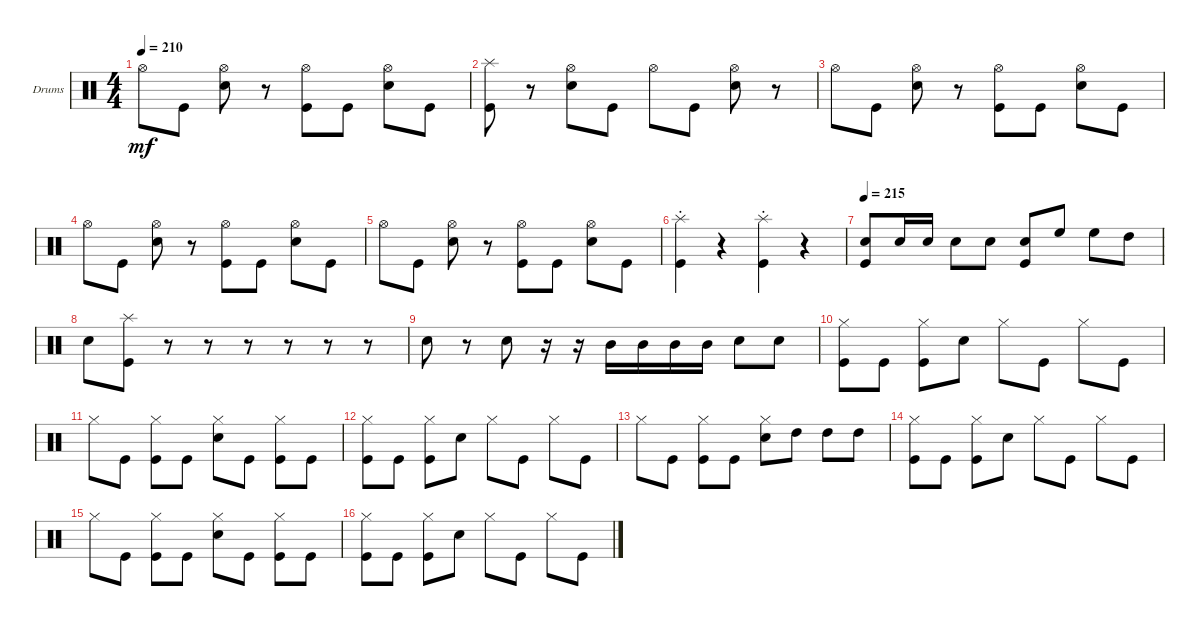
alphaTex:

\bracketExtendMode groupsimilarinstruments
\firstSystemTrackNameOrientation horizontal
\otherSystemsTrackNameOrientation horizontal
\track ("Drumkit" "Drums") {instrument percussion}
\staff {score}
\articulation defaults
\ts (4 4)
\tempo 210
\clef neutral
\ks c "Hi-Hat (open)".8{dy mf} "Kick (hit)".8
("Snare (hit) 2" "Hi-Hat (open)").8 r.8 ("Kick (hit)" "Hi-Hat (open)").8 "Kick (hit)".8 ("Snare (hit) 2" "Hi-Hat (open)").8 "Kick (hit)".8 |
("Kick (hit)" "Splash (hit)").8 r.8 ("Snare (hit) 2" "Hi-Hat (open)").8 "Kick (hit)".8 "Hi-Hat (open)".8 "Kick (hit)".8 ("Snare (hit) 2" "Hi-Hat (open)").8 r.8 |
"Hi-Hat (open)".8 "Kick (hit)".8 ("Snare (hit) 2" "Hi-Hat (open)").8 r.8 ("Kick (hit)" "Hi-Hat (open)").8 "Kick (hit)".8 ("Snare (hit) 2" "Hi-Hat (open)").8 "Kick (hit)".8 |
"Hi-Hat (open)".8 "Kick (hit)".8 ("Snare (hit) 2" "Hi-Hat (open)").8 r.8 ("Kick (hit)" "Hi-Hat (open)").8 "Kick (hit)".8 ("Snare (hit) 2" "Hi-Hat (open)").8 "Kick (hit)".8 |
"Hi-Hat (open)".8 "Kick (hit)".8 ("Snare (hit) 2" "Hi-Hat (open)").8 r.8 ("Kick (hit)" "Hi-Hat (open)").8 "Kick (hit)".8 ("Snare (hit) 2" "Hi-Hat (open)").8 "Kick (hit)".8 |
("Kick (hit)" "Splash (hit)"{st}).4 r.4 ("Kick (hit)" "Splash (hit)"{st}).4 r.4 |
\tempo 215
("Snare (hit) 2" "Kick (hit)").8 "Snare (hit) 2".16 "Snare (hit) 2".16 "Snare (hit) 2".8 "Snare (hit) 2".8 ("Snare (hit) 2" "Kick (hit)").8 "High Floor Tom (hit)".8 "High Floor Tom (hit)".8 "High Tom (hit)".8 |
"Snare (hit) 2".8 ("Kick (hit)" "Splash (hit)").8 r.8 r.8 r.8 r.8 r.8 r.8 |
"Snare (hit) 2".8 r.8 "Snare (hit) 2".8 r.16 r.16 "Mid Tom (hit)".16 "Mid Tom (hit)".16 "Mid Tom (hit)".16 "Mid Tom (hit)".16 "Snare (hit) 2".8 "Snare (hit) 2".8 |
("Kick (hit)" "Hi-Hat (closed)").8 "Kick (hit)".8 ("Kick (hit)" "Hi-Hat (closed)").8 "Snare (hit) 2".8 "Hi-Hat (closed)".8 "Kick (hit)".8 "Hi-Hat (closed)".8 "Kick (hit)".8 |
"Hi-Hat (closed)".8 "Kick (hit)".8 ("Kick (hit)" "Hi-Hat (closed)").8 "Kick (hit)".8 ("Snare (hit) 2" "Hi-Hat (closed)").8 "Kick (hit)".8 ("Kick (hit)" "Hi-Hat (closed)").8 "Kick (hit)".8 |
("Kick (hit)" "Hi-Hat (closed)").8 "Kick (hit)".8 ("Kick (hit)" "Hi-Hat (closed)").8 "Snare (hit) 2".8 "Hi-Hat (closed)".8 "Kick (hit)".8 "Hi-Hat (closed)".8 "Kick (hit)".8 |
"Hi-Hat (closed)".8 "Kick (hit)".8 ("Kick (hit)" "Hi-Hat (closed)").8 "Kick (hit)".8 ("Snare (hit) 2" "Hi-Hat (closed)").8 "High Tom (hit)".8 "High Tom (hit)".8 "High Tom (hit)".8 |
("Kick (hit)" "Hi-Hat (closed)").8 "Kick (hit)".8 ("Kick (hit)" "Hi-Hat (closed)").8 "Snare (hit) 2".8 "Hi-Hat (closed)".8 "Kick (hit)".8 "Hi-Hat (closed)".8 "Kick (hit)".8 |
"Hi-Hat (closed)".8 "Kick (hit)".8 ("Kick (hit)" "Hi-Hat (closed)").8 "Kick (hit)".8 ("Snare (hit) 2" "Hi-Hat (closed)").8 "Kick (hit)".8 ("Kick (hit)" "Hi-Hat (closed)").8 "Kick (hit)".8 |
("Kick (hit)" "Hi-Hat (closed)").8 "Kick (hit)".8 ("Kick (hit)" "Hi-Hat (closed)").8 "Snare (hit) 2".8 "Hi-Hat (closed)".8 "Kick (hit)".8 "Hi-Hat (closed)".8 "Kick (hit)".8
